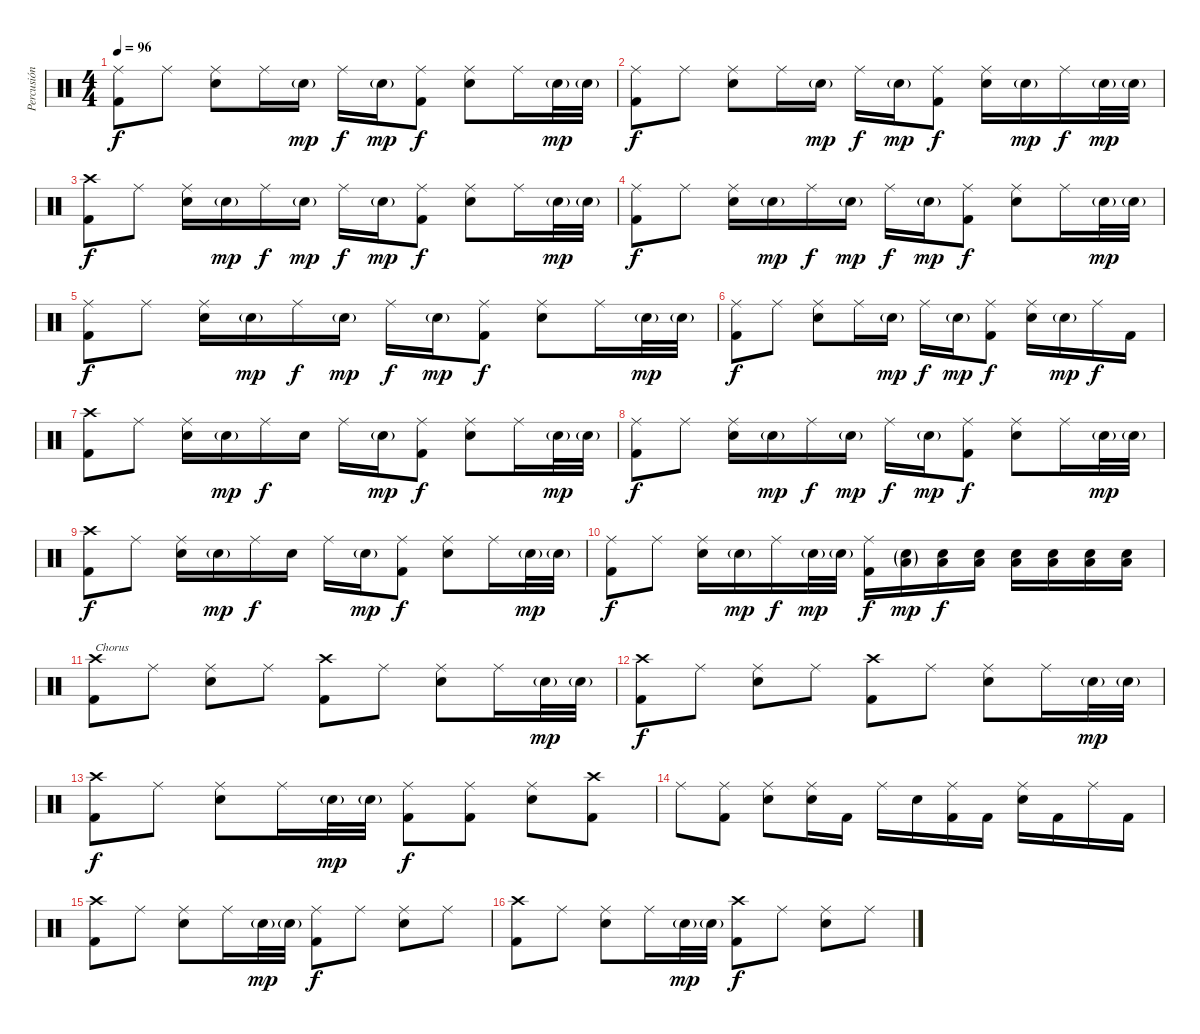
\track ("Percusión" "Percusión") {instrument percussion}
\staff {score}
\articulation defaults
\ts (4 4)
\tempo 96
\clef neutral
\ks c
("Ride (middle)" "Kick (hit) 2").8{dy f} "Ride (middle)".8 ("Ride (middle)" "Snare (hit) 2").8 "Ride (middle)".16 "Snare (hit) 2"{g}.16{dy mp} "Ride (middle)".16{dy f} "Snare (hit) 2"{g}.16{dy mp} ("Ride (middle)" "Kick (hit) 2").8{dy f} ("Ride (middle)" "Snare (hit) 2").8 "Ride (middle)".16 "Snare (hit) 2"{g}.32{dy mp} "Snare (hit) 2"{g}.32 |
("Ride (middle)" "Kick (hit) 2").8{dy f} "Ride (middle)".8 ("Ride (middle)" "Snare (hit) 2").8 "Ride (middle)".16 "Snare (hit) 2"{g}.16{dy mp} "Ride (middle)".16{dy f} "Snare (hit) 2"{g}.16{dy mp} ("Ride (middle)" "Kick (hit) 2").8{dy f} ("Ride (middle)" "Snare (hit) 2").16 "Snare (hit) 2"{g}.16{dy mp} "Ride (middle)".16{dy f} "Snare (hit) 2"{g}.32{dy mp} "Snare (hit) 2"{g}.32 |
("Crash high (hit)" "Kick (hit) 2").8{dy f} "Ride (middle)".8 ("Ride (middle)" "Snare (hit) 2").16 "Snare (hit) 2"{g}.16{dy mp} "Ride (middle)".16{dy f} "Snare (hit) 2"{g}.16{dy mp} "Ride (middle)".16{dy f} "Snare (hit) 2"{g}.16{dy mp} ("Ride (middle)" "Kick (hit) 2").8{dy f} ("Ride (middle)" "Snare (hit) 2").8 "Ride (middle)".16 "Snare (hit) 2"{g}.32{dy mp} "Snare (hit) 2"{g}.32 |
("Ride (middle)" "Kick (hit) 2").8{dy f} "Ride (middle)".8 ("Ride (middle)" "Snare (hit) 2").16 "Snare (hit) 2"{g}.16{dy mp} "Ride (middle)".16{dy f} "Snare (hit) 2"{g}.16{dy mp} "Ride (middle)".16{dy f} "Snare (hit) 2"{g}.16{dy mp} ("Ride (middle)" "Kick (hit) 2").8{dy f} ("Ride (middle)" "Snare (hit) 2").8 "Ride (middle)".16 "Snare (hit) 2"{g}.32{dy mp} "Snare (hit) 2"{g}.32 |
("Ride (middle)" "Kick (hit) 2").8{dy f} "Ride (middle)".8 ("Ride (middle)" "Snare (hit) 2").16 "Snare (hit) 2"{g}.16{dy mp} "Ride (middle)".16{dy f} "Snare (hit) 2"{g}.16{dy mp} "Ride (middle)".16{dy f} "Snare (hit) 2"{g}.16{dy mp} ("Ride (middle)" "Kick (hit) 2").8{dy f} ("Ride (middle)" "Snare (hit) 2").8 "Ride (middle)".16 "Snare (hit) 2"{g}.32{dy mp} "Snare (hit) 2"{g}.32 |
("Ride (middle)" "Kick (hit) 2").8{dy f} "Ride (middle)".8 ("Ride (middle)" "Snare (hit) 2").8 "Ride (middle)".16 "Snare (hit) 2"{g}.16{dy mp} "Ride (middle)".16{dy f} "Snare (hit) 2"{g}.16{dy mp} ("Ride (middle)" "Kick (hit) 2").8{dy f} ("Ride (middle)" "Snare (hit) 2").16 "Snare (hit) 2"{g}.16{dy mp} "Ride (middle)".16{dy f} "Kick (hit) 2".16 |
("Crash high (hit)" "Kick (hit) 2").8 "Ride (middle)".8 ("Ride (middle)" "Snare (hit) 2").16 "Snare (hit) 2"{g}.16{dy mp} "Ride (middle)".16{dy f} "Snare (hit) 2".16 "Ride (middle)".16 "Snare (hit) 2"{g}.16{dy mp} ("Ride (middle)" "Kick (hit) 2").8{dy f} ("Ride (middle)" "Snare (hit) 2").8 "Ride (middle)".16 "Snare (hit) 2"{g}.32{dy mp} "Snare (hit) 2"{g}.32 |
("Ride (middle)" "Kick (hit) 2").8{dy f} "Ride (middle)".8 ("Ride (middle)" "Snare (hit) 2").16 "Snare (hit) 2"{g}.16{dy mp} "Ride (middle)".16{dy f} "Snare (hit) 2"{g}.16{dy mp} "Ride (middle)".16{dy f} "Snare (hit) 2"{g}.16{dy mp} ("Ride (middle)" "Kick (hit) 2").8{dy f} ("Ride (middle)" "Snare (hit) 2").8 "Ride (middle)".16 "Snare (hit) 2"{g}.32{dy mp} "Snare (hit) 2"{g}.32 |
("Crash high (hit)" "Kick (hit) 2").8{dy f} "Ride (middle)".8 ("Ride (middle)" "Snare (hit) 2").16 "Snare (hit) 2"{g}.16{dy mp} "Ride (middle)".16{dy f} "Snare (hit) 2".16 "Ride (middle)".16 "Snare (hit) 2"{g}.16{dy mp} ("Ride (middle)" "Kick (hit) 2").8{dy f} ("Ride (middle)" "Snare (hit) 2").8 "Ride (middle)".16 "Snare (hit) 2"{g}.32{dy mp} "Snare (hit) 2"{g}.32 |
("Ride (middle)" "Kick (hit) 2").8{dy f} "Ride (middle)".8 ("Ride (middle)" "Snare (hit) 2").16 "Snare (hit) 2"{g}.16{dy mp} "Ride (middle)".16{dy f} "Snare (hit) 2"{g}.32{dy mp} "Snare (hit) 2"{g}.32 ("Ride (middle)" "Kick (hit) 2").16{dy f} ("Low Floor Tom (hit)"{g} "Snare (hit) 2"{g}).16{dy mp} ("Low Floor Tom (hit)" "Snare (hit) 2").16{dy f} ("Low Floor Tom (hit)" "Snare (hit) 2").16 ("Low Floor Tom (hit)" "Snare (hit) 2").16 ("Low Floor Tom (hit)" "Snare (hit) 2").16 ("Low Floor Tom (hit)" "Snare (hit) 2").16 ("Low Floor Tom (hit)" "Snare (hit) 2").16 |
("Crash high (hit)" "Kick (hit) 2").8{txt "Chorus"} "Ride (middle)".8 ("Ride (middle)" "Snare (hit) 2").8 "Ride (middle)".8 ("Crash high (hit)" "Kick (hit) 2").8 "Ride (middle)".8 ("Ride (middle)" "Snare (hit) 2").8 "Ride (middle)".16 "Snare (hit) 2"{g}.32{dy mp} "Snare (hit) 2"{g}.32 |
("Crash high (hit)" "Kick (hit) 2").8{dy f} "Ride (middle)".8 ("Ride (middle)" "Snare (hit) 2").8 "Ride (middle)".8 ("Crash high (hit)" "Kick (hit) 2").8 "Ride (middle)".8 ("Ride (middle)" "Snare (hit) 2").8 "Ride (middle)".16 "Snare (hit) 2"{g}.32{dy mp} "Snare (hit) 2"{g}.32 |
("Crash high (hit)" "Kick (hit) 2").8{dy f} "Ride (middle)".8 ("Ride (middle)" "Snare (hit) 2").8 "Ride (middle)".16 "Snare (hit) 2"{g}.32{dy mp} "Snare (hit) 2"{g}.32 ("Ride (middle)" "Kick (hit) 2").8{dy f} ("Ride (middle)" "Kick (hit) 2").8 ("Ride (middle)" "Snare (hit) 2").8 ("Crash high (hit)" "Kick (hit) 2").8 |
"Ride (middle)".8 ("Ride (middle)" "Kick (hit) 2").8 ("Ride (middle)" "Snare (hit) 2").8 ("Ride (middle)" "Snare (hit) 2").16 "Kick (hit) 2".16 "Ride (middle)".16 "Snare (hit) 2".16 ("Ride (middle)" "Kick (hit) 2").16 "Kick (hit) 2".16 ("Ride (middle)" "Snare (hit) 2").16 "Kick (hit) 2".16 "Ride (middle)".16 "Kick (hit) 2".16 |
("Crash high (hit)" "Kick (hit) 2").8 "Ride (middle)".8 ("Ride (middle)" "Snare (hit) 2").8 "Ride (middle)".16 "Snare (hit) 2"{g}.32{dy mp} "Snare (hit) 2"{g}.32 ("Ride (middle)" "Kick (hit) 2").8{dy f} "Ride (middle)".8 ("Ride (middle)" "Snare (hit) 2").8 "Ride (middle)".8 |
("Crash high (hit)" "Kick (hit) 2").8 "Ride (middle)".8 ("Ride (middle)" "Snare (hit) 2").8 "Ride (middle)".16 "Snare (hit) 2"{g}.32{dy mp} "Snare (hit) 2"{g}.32 ("Crash high (hit)" "Kick (hit) 2").8{dy f} "Ride (middle)".8 ("Ride (middle)" "Snare (hit) 2").8 "Ride (middle)".8
